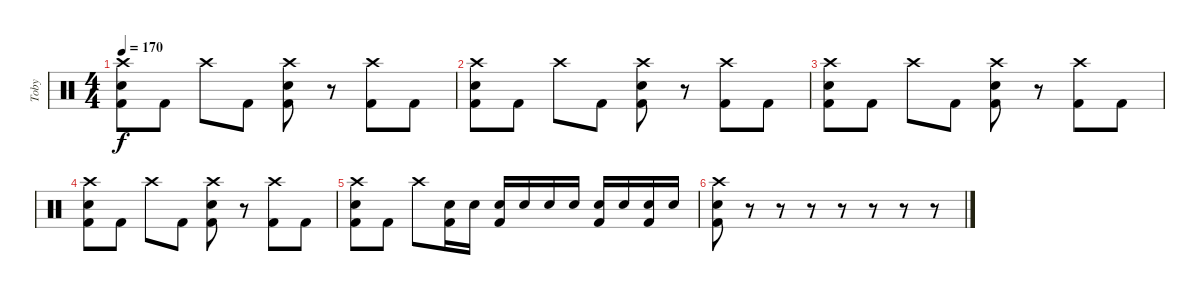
\track ("Toby" "Toby") {instrument percussion}
\staff {score}
\articulation defaults
\ts (4 4)
\tempo 170
\clef neutral
\ks c
("Crash high (hit)" "Electric Snare (hit)" "Kick (hit) 2").8{dy f} "Kick (hit) 2".8 "Crash high (hit)".8 "Kick (hit) 2".8 ("Crash high (hit)" "Electric Snare (hit)" "Kick (hit) 2").8 r.8 ("Crash high (hit)" "Kick (hit) 2").8 "Kick (hit) 2".8 |
("Crash high (hit)" "Electric Snare (hit)" "Kick (hit) 2").8 "Kick (hit) 2".8 "Crash high (hit)".8 "Kick (hit) 2".8 ("Crash high (hit)" "Electric Snare (hit)" "Kick (hit) 2").8 r.8 ("Crash high (hit)" "Kick (hit) 2").8 "Kick (hit) 2".8 |
("Crash high (hit)" "Electric Snare (hit)" "Kick (hit) 2").8 "Kick (hit) 2".8 "Crash high (hit)".8 "Kick (hit) 2".8 ("Crash high (hit)" "Electric Snare (hit)" "Kick (hit) 2").8 r.8 ("Crash high (hit)" "Kick (hit) 2").8 "Kick (hit) 2".8 |
("Crash high (hit)" "Electric Snare (hit)" "Kick (hit) 2").8 "Kick (hit) 2".8 "Crash high (hit)".8 "Kick (hit) 2".8 ("Crash high (hit)" "Electric Snare (hit)" "Kick (hit) 2").8 r.8 ("Crash high (hit)" "Kick (hit) 2").8 "Kick (hit) 2".8 |
("Crash high (hit)" "Electric Snare (hit)" "Kick (hit) 2").8 "Kick (hit) 2".8 "Crash high (hit)".8 ("Electric Snare (hit)" "Kick (hit) 2").16 "Electric Snare (hit)".16 ("Electric Snare (hit)" "Kick (hit) 2").16 "Electric Snare (hit)".16 "Electric Snare (hit)".16 "Electric Snare (hit)".16 ("Electric Snare (hit)" "Kick (hit) 2").16 "Electric Snare (hit)".16 ("Electric Snare (hit)" "Kick (hit) 2").16 "Electric Snare (hit)".16 |
("Crash high (hit)" "Electric Snare (hit)" "Kick (hit) 2").8 r.8 r.8 r.8 r.8 r.8 r.8 r.8
